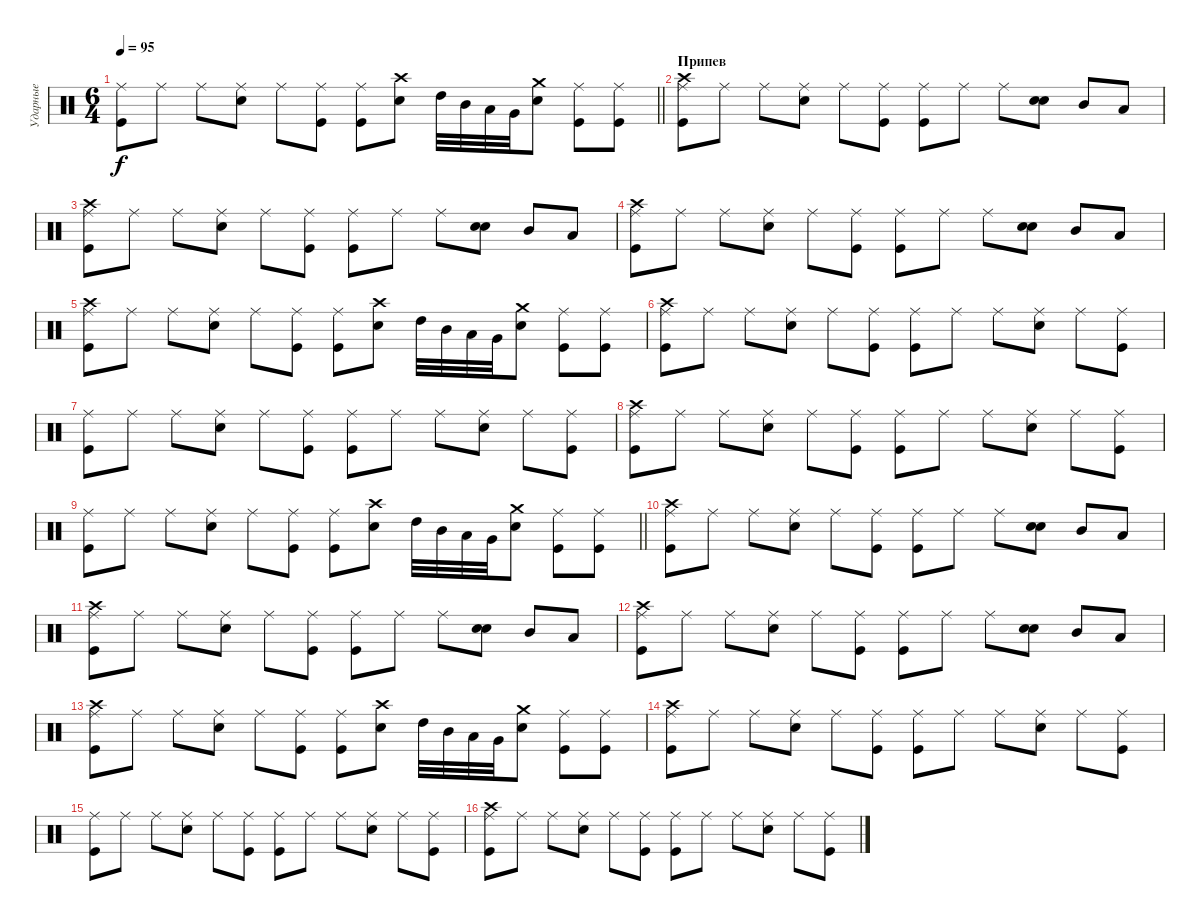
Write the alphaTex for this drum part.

\track ("Ударные" "Ударные") {instrument percussion}
\staff {score}
\articulation defaults
\ts (6 4)
\tempo 95
\clef neutral
\barLineRight lightlight
\ks c
("Kick (hit)" "Ride (middle)").8{dy f} "Ride (middle)".8 "Ride (middle)".8 ("Ride (middle)" "Snare (hit) 2").8 "Ride (middle)".8 ("Kick (hit)" "Ride (middle)").8 ("Kick (hit)" "Ride (middle)").8 ("Crash high (hit)" "Snare (hit) 2").8 "High Tom (hit)".32 "Mid Tom (hit)".32 "Low Tom (hit)".32 "Very Low Tom (hit)".32 ("Crash medium (hit)" "Snare (hit) 2").8 ("Kick (hit)" "Ride (middle)").8 ("Kick (hit)" "Ride (middle)").8 |
\section ("" "Припев")
("Kick (hit)" "Ride (middle)" "Crash high (hit)").8 "Ride (middle)".8 "Ride (middle)".8 ("Ride (middle)" "Snare (hit) 2").8 "Ride (middle)".8 ("Kick (hit)" "Ride (middle)").8 ("Kick (hit)" "Ride (middle)").8 "Ride (middle)".8 "Ride (middle)".8 ("Snare (hit) 2" "Snare (hit) 2").8{bd 120} "Mid Tom (hit)".8 "Low Tom (hit)".8 |
("Kick (hit)" "Ride (middle)" "Crash high (hit)").8 "Ride (middle)".8 "Ride (middle)".8 ("Ride (middle)" "Snare (hit) 2").8 "Ride (middle)".8 ("Kick (hit)" "Ride (middle)").8 ("Kick (hit)" "Ride (middle)").8 "Ride (middle)".8 "Ride (middle)".8 ("Snare (hit) 2" "Snare (hit) 2").8{bd 120} "Mid Tom (hit)".8 "Low Tom (hit)".8 |
("Kick (hit)" "Ride (middle)" "Crash high (hit)").8 "Ride (middle)".8 "Ride (middle)".8 ("Ride (middle)" "Snare (hit) 2").8 "Ride (middle)".8 ("Kick (hit)" "Ride (middle)").8 ("Kick (hit)" "Ride (middle)").8 "Ride (middle)".8 "Ride (middle)".8 ("Snare (hit) 2" "Snare (hit) 2").8{bd 120} "Mid Tom (hit)".8 "Low Tom (hit)".8 |
("Kick (hit)" "Ride (middle)" "Crash high (hit)").8 "Ride (middle)".8 "Ride (middle)".8 ("Ride (middle)" "Snare (hit) 2").8 "Ride (middle)".8 ("Kick (hit)" "Ride (middle)").8 ("Kick (hit)" "Ride (middle)").8 ("Crash high (hit)" "Snare (hit) 2").8 "High Tom (hit)".32 "Mid Tom (hit)".32 "Low Tom (hit)".32 "Very Low Tom (hit)".32 ("Crash medium (hit)" "Snare (hit) 2").8 ("Kick (hit)" "Ride (middle)").8 ("Kick (hit)" "Ride (middle)").8 |
("Kick (hit)" "Ride (middle)" "Crash high (hit)").8 "Ride (middle)".8 "Ride (middle)".8 ("Ride (middle)" "Snare (hit) 2").8 "Ride (middle)".8 ("Kick (hit)" "Ride (middle)").8 ("Kick (hit)" "Ride (middle)").8 "Ride (middle)".8 "Ride (middle)".8 ("Ride (middle)" "Snare (hit) 2").8 "Ride (middle)".8 ("Kick (hit)" "Ride (middle)").8 |
("Kick (hit)" "Ride (middle)").8 "Ride (middle)".8 "Ride (middle)".8 ("Ride (middle)" "Snare (hit) 2").8 "Ride (middle)".8 ("Kick (hit)" "Ride (middle)").8 ("Kick (hit)" "Ride (middle)").8 "Ride (middle)".8 "Ride (middle)".8 ("Ride (middle)" "Snare (hit) 2").8 "Ride (middle)".8 ("Kick (hit)" "Ride (middle)").8 |
("Kick (hit)" "Ride (middle)" "Crash high (hit)").8 "Ride (middle)".8 "Ride (middle)".8 ("Ride (middle)" "Snare (hit) 2").8 "Ride (middle)".8 ("Kick (hit)" "Ride (middle)").8 ("Kick (hit)" "Ride (middle)").8 "Ride (middle)".8 "Ride (middle)".8 ("Ride (middle)" "Snare (hit) 2").8 "Ride (middle)".8 ("Kick (hit)" "Ride (middle)").8 |
\barLineRight lightlight
("Kick (hit)" "Ride (middle)").8 "Ride (middle)".8 "Ride (middle)".8 ("Ride (middle)" "Snare (hit) 2").8 "Ride (middle)".8 ("Kick (hit)" "Ride (middle)").8 ("Kick (hit)" "Ride (middle)").8 ("Crash high (hit)" "Snare (hit) 2").8 "High Tom (hit)".32 "Mid Tom (hit)".32 "Low Tom (hit)".32 "Very Low Tom (hit)".32 ("Crash medium (hit)" "Snare (hit) 2").8 ("Kick (hit)" "Ride (middle)").8 ("Kick (hit)" "Ride (middle)").8 |
("Kick (hit)" "Ride (middle)" "Crash high (hit)").8 "Ride (middle)".8 "Ride (middle)".8 ("Ride (middle)" "Snare (hit) 2").8 "Ride (middle)".8 ("Kick (hit)" "Ride (middle)").8 ("Kick (hit)" "Ride (middle)").8 "Ride (middle)".8 "Ride (middle)".8 ("Snare (hit) 2" "Snare (hit) 2").8{bd 120} "Mid Tom (hit)".8 "Low Tom (hit)".8 |
("Kick (hit)" "Ride (middle)" "Crash high (hit)").8 "Ride (middle)".8 "Ride (middle)".8 ("Ride (middle)" "Snare (hit) 2").8 "Ride (middle)".8 ("Kick (hit)" "Ride (middle)").8 ("Kick (hit)" "Ride (middle)").8 "Ride (middle)".8 "Ride (middle)".8 ("Snare (hit) 2" "Snare (hit) 2").8{bd 120} "Mid Tom (hit)".8 "Low Tom (hit)".8 |
("Kick (hit)" "Ride (middle)" "Crash high (hit)").8 "Ride (middle)".8 "Ride (middle)".8 ("Ride (middle)" "Snare (hit) 2").8 "Ride (middle)".8 ("Kick (hit)" "Ride (middle)").8 ("Kick (hit)" "Ride (middle)").8 "Ride (middle)".8 "Ride (middle)".8 ("Snare (hit) 2" "Snare (hit) 2").8{bd 120} "Mid Tom (hit)".8 "Low Tom (hit)".8 |
("Kick (hit)" "Ride (middle)" "Crash high (hit)").8 "Ride (middle)".8 "Ride (middle)".8 ("Ride (middle)" "Snare (hit) 2").8 "Ride (middle)".8 ("Kick (hit)" "Ride (middle)").8 ("Kick (hit)" "Ride (middle)").8 ("Crash high (hit)" "Snare (hit) 2").8 "High Tom (hit)".32 "Mid Tom (hit)".32 "Low Tom (hit)".32 "Very Low Tom (hit)".32 ("Crash medium (hit)" "Snare (hit) 2").8 ("Kick (hit)" "Ride (middle)").8 ("Kick (hit)" "Ride (middle)").8 |
("Kick (hit)" "Ride (middle)" "Crash high (hit)").8 "Ride (middle)".8 "Ride (middle)".8 ("Ride (middle)" "Snare (hit) 2").8 "Ride (middle)".8 ("Kick (hit)" "Ride (middle)").8 ("Kick (hit)" "Ride (middle)").8 "Ride (middle)".8 "Ride (middle)".8 ("Ride (middle)" "Snare (hit) 2").8 "Ride (middle)".8 ("Kick (hit)" "Ride (middle)").8 |
("Kick (hit)" "Ride (middle)").8 "Ride (middle)".8 "Ride (middle)".8 ("Ride (middle)" "Snare (hit) 2").8 "Ride (middle)".8 ("Kick (hit)" "Ride (middle)").8 ("Kick (hit)" "Ride (middle)").8 "Ride (middle)".8 "Ride (middle)".8 ("Ride (middle)" "Snare (hit) 2").8 "Ride (middle)".8 ("Kick (hit)" "Ride (middle)").8 |
("Kick (hit)" "Ride (middle)" "Crash high (hit)").8 "Ride (middle)".8 "Ride (middle)".8 ("Ride (middle)" "Snare (hit) 2").8 "Ride (middle)".8 ("Kick (hit)" "Ride (middle)").8 ("Kick (hit)" "Ride (middle)").8 "Ride (middle)".8 "Ride (middle)".8 ("Ride (middle)" "Snare (hit) 2").8 "Ride (middle)".8 ("Kick (hit)" "Ride (middle)").8
